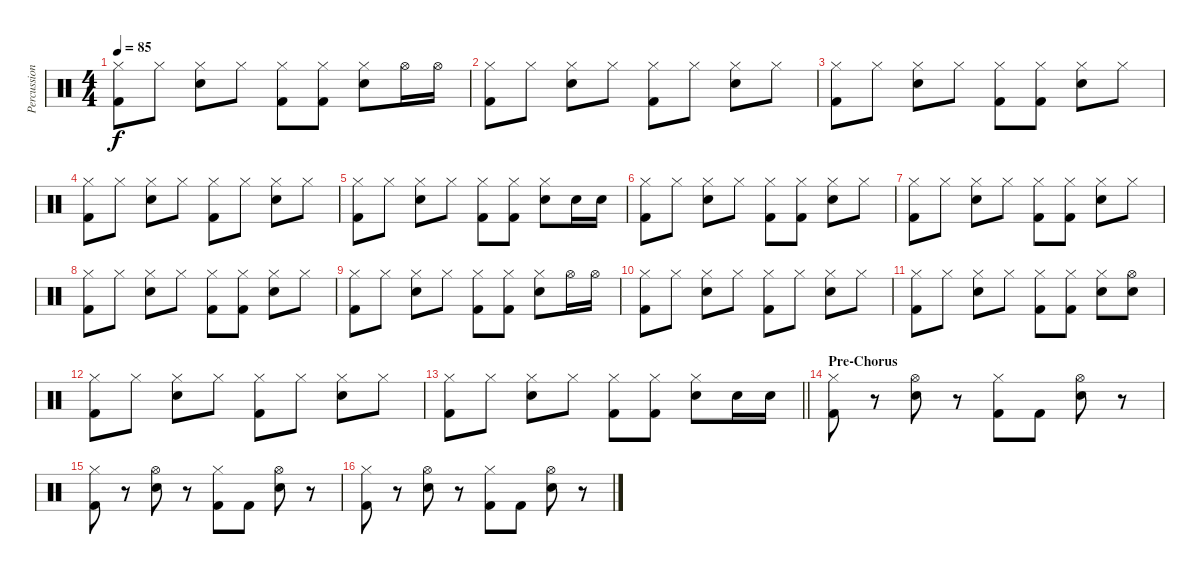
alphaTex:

\track ("Percussion" "Percussion") {instrument percussion}
\staff {score}
\articulation defaults
\ts (4 4)
\tempo 85
\clef neutral
\ks c
("Hi-Hat (closed)" "Kick (hit) 2").8{dy f} "Hi-Hat (closed)".8 ("Hi-Hat (closed)" "Electric Snare (hit)").8 "Hi-Hat (closed)".8 ("Hi-Hat (closed)" "Kick (hit) 2").8 ("Hi-Hat (closed)" "Kick (hit) 2").8 ("Hi-Hat (closed)" "Electric Snare (hit)").8 "Hi-Hat (open)".16 "Hi-Hat (open)".16 |
("Hi-Hat (closed)" "Kick (hit) 2").8 "Hi-Hat (closed)".8 ("Hi-Hat (closed)" "Electric Snare (hit)").8 "Hi-Hat (closed)".8 ("Hi-Hat (closed)" "Kick (hit) 2").8 "Hi-Hat (closed)".8 ("Hi-Hat (closed)" "Electric Snare (hit)").8 "Hi-Hat (closed)".8 |
("Hi-Hat (closed)" "Kick (hit) 2").8 "Hi-Hat (closed)".8 ("Hi-Hat (closed)" "Electric Snare (hit)").8 "Hi-Hat (closed)".8 ("Hi-Hat (closed)" "Kick (hit) 2").8 ("Hi-Hat (closed)" "Kick (hit) 2").8 ("Hi-Hat (closed)" "Electric Snare (hit)").8 "Hi-Hat (closed)".8 |
("Hi-Hat (closed)" "Kick (hit) 2").8 "Hi-Hat (closed)".8 ("Hi-Hat (closed)" "Electric Snare (hit)").8 "Hi-Hat (closed)".8 ("Hi-Hat (closed)" "Kick (hit) 2").8 "Hi-Hat (closed)".8 ("Hi-Hat (closed)" "Electric Snare (hit)").8 "Hi-Hat (closed)".8 |
("Hi-Hat (closed)" "Kick (hit) 2").8 "Hi-Hat (closed)".8 ("Hi-Hat (closed)" "Electric Snare (hit)").8 "Hi-Hat (closed)".8 ("Hi-Hat (closed)" "Kick (hit) 2").8 ("Hi-Hat (closed)" "Kick (hit) 2").8 ("Hi-Hat (closed)" "Electric Snare (hit)").8 "Electric Snare (hit)".16 "Electric Snare (hit)".16 |
("Hi-Hat (closed)" "Kick (hit) 2").8 "Hi-Hat (closed)".8 ("Hi-Hat (closed)" "Electric Snare (hit)").8 "Hi-Hat (closed)".8 ("Hi-Hat (closed)" "Kick (hit) 2").8 ("Hi-Hat (closed)" "Kick (hit) 2").8 ("Hi-Hat (closed)" "Electric Snare (hit)").8 "Hi-Hat (closed)".8 |
("Hi-Hat (closed)" "Kick (hit) 2").8 "Hi-Hat (closed)".8 ("Hi-Hat (closed)" "Electric Snare (hit)").8 "Hi-Hat (closed)".8 ("Hi-Hat (closed)" "Kick (hit) 2").8 ("Hi-Hat (closed)" "Kick (hit) 2").8 ("Hi-Hat (closed)" "Electric Snare (hit)").8 "Hi-Hat (closed)".8 |
("Hi-Hat (closed)" "Kick (hit) 2").8 "Hi-Hat (closed)".8 ("Hi-Hat (closed)" "Electric Snare (hit)").8 "Hi-Hat (closed)".8 ("Hi-Hat (closed)" "Kick (hit) 2").8 ("Hi-Hat (closed)" "Kick (hit) 2").8 ("Hi-Hat (closed)" "Electric Snare (hit)").8 "Hi-Hat (closed)".8 |
("Hi-Hat (closed)" "Kick (hit) 2").8 "Hi-Hat (closed)".8 ("Hi-Hat (closed)" "Electric Snare (hit)").8 "Hi-Hat (closed)".8 ("Hi-Hat (closed)" "Kick (hit) 2").8 ("Hi-Hat (closed)" "Kick (hit) 2").8 ("Hi-Hat (closed)" "Electric Snare (hit)").8 "Hi-Hat (open)".16 "Hi-Hat (open)".16 |
("Hi-Hat (closed)" "Kick (hit) 2").8 "Hi-Hat (closed)".8 ("Hi-Hat (closed)" "Electric Snare (hit)").8 "Hi-Hat (closed)".8 ("Hi-Hat (closed)" "Kick (hit) 2").8 "Hi-Hat (closed)".8 ("Hi-Hat (closed)" "Electric Snare (hit)").8 "Hi-Hat (closed)".8 |
("Hi-Hat (closed)" "Kick (hit) 2").8 "Hi-Hat (closed)".8 ("Hi-Hat (closed)" "Electric Snare (hit)").8 "Hi-Hat (closed)".8 ("Hi-Hat (closed)" "Kick (hit) 2").8 ("Hi-Hat (closed)" "Kick (hit) 2").8 ("Hi-Hat (closed)" "Electric Snare (hit)").8 ("Hi-Hat (open)" "Electric Snare (hit)").8 |
("Hi-Hat (closed)" "Kick (hit) 2").8 "Hi-Hat (closed)".8 ("Hi-Hat (closed)" "Electric Snare (hit)").8 "Hi-Hat (closed)".8 ("Hi-Hat (closed)" "Kick (hit) 2").8 "Hi-Hat (closed)".8 ("Hi-Hat (closed)" "Electric Snare (hit)").8 "Hi-Hat (closed)".8 |
\barLineRight lightlight
("Hi-Hat (closed)" "Kick (hit) 2").8 "Hi-Hat (closed)".8 ("Hi-Hat (closed)" "Electric Snare (hit)").8 "Hi-Hat (closed)".8 ("Hi-Hat (closed)" "Kick (hit) 2").8 ("Hi-Hat (closed)" "Kick (hit) 2").8 ("Hi-Hat (closed)" "Electric Snare (hit)").8 "Electric Snare (hit)".16 "Electric Snare (hit)".16 |
\section ("" "Pre-Chorus")
("Hi-Hat (closed)" "Kick (hit) 2").8 r.8 ("Hi-Hat (open)" "Electric Snare (hit)").8 r.8 ("Hi-Hat (closed)" "Kick (hit) 2").8 "Kick (hit) 2".8 ("Hi-Hat (open)" "Electric Snare (hit)").8 r.8 |
("Hi-Hat (closed)" "Kick (hit) 2").8 r.8 ("Hi-Hat (open)" "Electric Snare (hit)").8 r.8 ("Hi-Hat (closed)" "Kick (hit) 2").8 "Kick (hit) 2".8 ("Hi-Hat (open)" "Electric Snare (hit)").8 r.8 |
("Hi-Hat (closed)" "Kick (hit) 2").8 r.8 ("Hi-Hat (open)" "Electric Snare (hit)").8 r.8 ("Hi-Hat (closed)" "Kick (hit) 2").8 "Kick (hit) 2".8 ("Hi-Hat (open)" "Electric Snare (hit)").8 r.8
